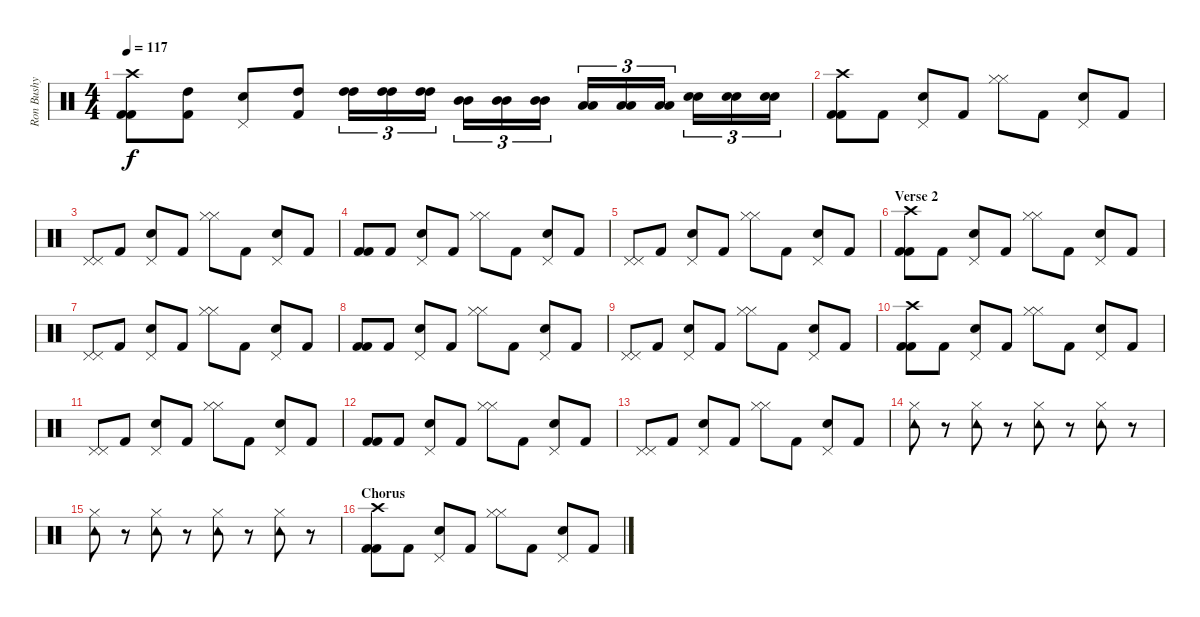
\track ("Ron Bushy" "Ron Bushy") {instrument percussion}
\staff {score}
\articulation defaults
\ts (4 4)
\tempo 117
\clef neutral
\ks c
("Crash high (hit)" "Kick (hit) 2" "Kick (hit) 2").8{dy f} ("High Tom (hit)" "Kick (hit) 2").8 ("Pedal Hi-Hat (hit)" "Snare (hit) 2").8 ("Kick (hit) 2" "High Tom (hit)").8 ("High Tom (hit)" "High Tom (hit)").16{tu (3 2)} ("High Tom (hit)" "High Tom (hit)").16{tu (3 2)} ("High Tom (hit)" "High Tom (hit)").16{tu (3 2)} ("Mid Tom (hit)" "Mid Tom (hit)").16{tu (3 2)} ("Mid Tom (hit)" "Mid Tom (hit)").16{tu (3 2)} ("Mid Tom (hit)" "Mid Tom (hit)").16{tu (3 2)} ("Low Tom (hit)" "Low Tom (hit)").16{tu (3 2)} ("Low Tom (hit)" "Low Tom (hit)").16{tu (3 2)} ("Low Tom (hit)" "Low Tom (hit)").16{tu (3 2)} ("Snare (hit) 2" "Snare (hit) 2").16{tu (3 2)} ("Snare (hit) 2" "Snare (hit) 2").16{tu (3 2)} ("Snare (hit) 2" "Snare (hit) 2").16{tu (3 2)} |
("Crash high (hit)" "Kick (hit) 2" "Kick (hit) 2").8 "Kick (hit) 2".8 ("Pedal Hi-Hat (hit)" "Snare (hit) 2").8 "Kick (hit) 2".8 ("Hi-Hat (closed)" "Hi-Hat (closed)").8 "Kick (hit) 2".8 ("Pedal Hi-Hat (hit)" "Snare (hit) 2").8 "Kick (hit) 2".8 |
("Pedal Hi-Hat (hit)" "Pedal Hi-Hat (hit)").8 "Kick (hit) 2".8 ("Pedal Hi-Hat (hit)" "Snare (hit) 2").8 "Kick (hit) 2".8 ("Hi-Hat (closed)" "Hi-Hat (closed)").8 "Kick (hit) 2".8 ("Pedal Hi-Hat (hit)" "Snare (hit) 2").8 "Kick (hit) 2".8 |
("Kick (hit) 2" "Kick (hit) 2").8 "Kick (hit) 2".8 ("Pedal Hi-Hat (hit)" "Snare (hit) 2").8 "Kick (hit) 2".8 ("Hi-Hat (closed)" "Hi-Hat (closed)").8 "Kick (hit) 2".8 ("Pedal Hi-Hat (hit)" "Snare (hit) 2").8 "Kick (hit) 2".8 |
("Pedal Hi-Hat (hit)" "Pedal Hi-Hat (hit)").8 "Kick (hit) 2".8 ("Pedal Hi-Hat (hit)" "Snare (hit) 2").8 "Kick (hit) 2".8 ("Hi-Hat (closed)" "Hi-Hat (closed)").8 "Kick (hit) 2".8 ("Pedal Hi-Hat (hit)" "Snare (hit) 2").8 "Kick (hit) 2".8 |
\section ("" "Verse 2")
("Crash high (hit)" "Kick (hit) 2" "Kick (hit) 2").8 "Kick (hit) 2".8 ("Pedal Hi-Hat (hit)" "Snare (hit) 2").8 "Kick (hit) 2".8 ("Hi-Hat (closed)" "Hi-Hat (closed)").8 "Kick (hit) 2".8 ("Pedal Hi-Hat (hit)" "Snare (hit) 2").8 "Kick (hit) 2".8 |
("Pedal Hi-Hat (hit)" "Pedal Hi-Hat (hit)").8 "Kick (hit) 2".8 ("Pedal Hi-Hat (hit)" "Snare (hit) 2").8 "Kick (hit) 2".8 ("Hi-Hat (closed)" "Hi-Hat (closed)").8 "Kick (hit) 2".8 ("Pedal Hi-Hat (hit)" "Snare (hit) 2").8 "Kick (hit) 2".8 |
("Kick (hit) 2" "Kick (hit) 2").8 "Kick (hit) 2".8 ("Pedal Hi-Hat (hit)" "Snare (hit) 2").8 "Kick (hit) 2".8 ("Hi-Hat (closed)" "Hi-Hat (closed)").8 "Kick (hit) 2".8 ("Pedal Hi-Hat (hit)" "Snare (hit) 2").8 "Kick (hit) 2".8 |
("Pedal Hi-Hat (hit)" "Pedal Hi-Hat (hit)").8 "Kick (hit) 2".8 ("Pedal Hi-Hat (hit)" "Snare (hit) 2").8 "Kick (hit) 2".8 ("Hi-Hat (closed)" "Hi-Hat (closed)").8 "Kick (hit) 2".8 ("Pedal Hi-Hat (hit)" "Snare (hit) 2").8 "Kick (hit) 2".8 |
("Crash high (hit)" "Kick (hit) 2" "Kick (hit) 2").8 "Kick (hit) 2".8 ("Pedal Hi-Hat (hit)" "Snare (hit) 2").8 "Kick (hit) 2".8 ("Hi-Hat (closed)" "Hi-Hat (closed)").8 "Kick (hit) 2".8 ("Pedal Hi-Hat (hit)" "Snare (hit) 2").8 "Kick (hit) 2".8 |
("Pedal Hi-Hat (hit)" "Pedal Hi-Hat (hit)").8 "Kick (hit) 2".8 ("Pedal Hi-Hat (hit)" "Snare (hit) 2").8 "Kick (hit) 2".8 ("Hi-Hat (closed)" "Hi-Hat (closed)").8 "Kick (hit) 2".8 ("Pedal Hi-Hat (hit)" "Snare (hit) 2").8 "Kick (hit) 2".8 |
("Kick (hit) 2" "Kick (hit) 2").8 "Kick (hit) 2".8 ("Pedal Hi-Hat (hit)" "Snare (hit) 2").8 "Kick (hit) 2".8 ("Hi-Hat (closed)" "Hi-Hat (closed)").8 "Kick (hit) 2".8 ("Pedal Hi-Hat (hit)" "Snare (hit) 2").8 "Kick (hit) 2".8 |
("Pedal Hi-Hat (hit)" "Pedal Hi-Hat (hit)").8 "Kick (hit) 2".8 ("Pedal Hi-Hat (hit)" "Snare (hit) 2").8 "Kick (hit) 2".8 ("Hi-Hat (closed)" "Hi-Hat (closed)").8 "Kick (hit) 2".8 ("Pedal Hi-Hat (hit)" "Snare (hit) 2").8 "Kick (hit) 2".8 |
("Tambourine (hit)" "Hi-Hat (closed)").8 r.8 ("Tambourine (hit)" "Hi-Hat (closed)").8 r.8 ("Tambourine (hit)" "Hi-Hat (closed)").8 r.8 ("Tambourine (hit)" "Hi-Hat (closed)").8 r.8 |
("Tambourine (hit)" "Hi-Hat (closed)").8 r.8 ("Tambourine (hit)" "Hi-Hat (closed)").8 r.8 ("Tambourine (hit)" "Hi-Hat (closed)").8 r.8 ("Tambourine (hit)" "Hi-Hat (closed)").8 r.8 |
\section ("" "Chorus")
("Crash high (hit)" "Kick (hit) 2" "Kick (hit) 2").8 "Kick (hit) 2".8 ("Pedal Hi-Hat (hit)" "Snare (hit) 2").8 "Kick (hit) 2".8 ("Hi-Hat (closed)" "Hi-Hat (closed)").8 "Kick (hit) 2".8 ("Pedal Hi-Hat (hit)" "Snare (hit) 2").8 "Kick (hit) 2".8
